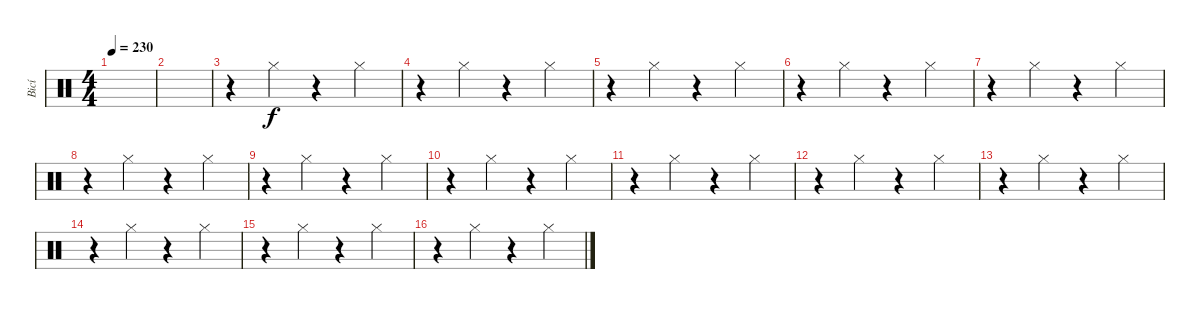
\track ("Bicí" "Bicí") {instrument percussion}
\staff {score}
\articulation defaults
\ts (4 4)
\tempo 230
\clef neutral
\ks c
|
|
r.4 "Hi-Hat (closed)".4 r.4 "Hi-Hat (closed)".4 |
r.4 "Hi-Hat (closed)".4 r.4 "Hi-Hat (closed)".4 |
r.4 "Hi-Hat (closed)".4 r.4 "Hi-Hat (closed)".4 |
r.4 "Hi-Hat (closed)".4 r.4 "Hi-Hat (closed)".4 |
r.4 "Hi-Hat (closed)".4 r.4 "Hi-Hat (closed)".4 |
r.4 "Hi-Hat (closed)".4 r.4 "Hi-Hat (closed)".4 |
r.4 "Hi-Hat (closed)".4 r.4 "Hi-Hat (closed)".4 |
r.4 "Hi-Hat (closed)".4 r.4 "Hi-Hat (closed)".4 |
r.4 "Hi-Hat (closed)".4 r.4 "Hi-Hat (closed)".4 |
r.4 "Hi-Hat (closed)".4 r.4 "Hi-Hat (closed)".4 |
r.4 "Hi-Hat (closed)".4 r.4 "Hi-Hat (closed)".4 |
r.4 "Hi-Hat (closed)".4 r.4 "Hi-Hat (closed)".4 |
r.4 "Hi-Hat (closed)".4 r.4 "Hi-Hat (closed)".4 |
r.4 "Hi-Hat (closed)".4 r.4 "Hi-Hat (closed)".4
